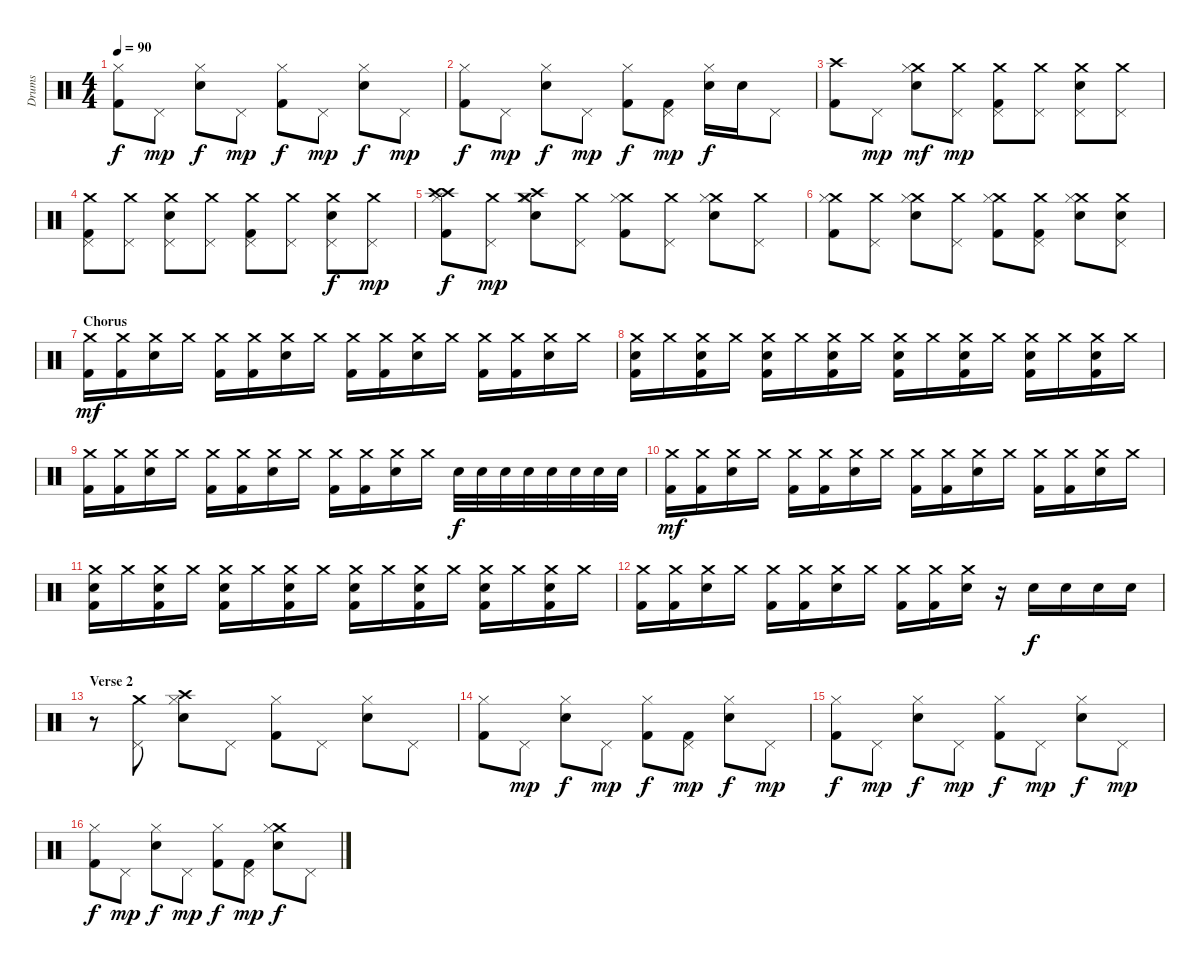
\track ("Drums" "Drums") {instrument percussion}
\staff {score}
\articulation defaults
\ts (4 4)
\tempo 90
\clef neutral
\ks c
("Hi-Hat (closed)" "Kick (hit) 2").8{dy f} "Pedal Hi-Hat (hit)".8{dy mp} ("Hi-Hat (closed)" "Snare (hit) 2").8{dy f} "Pedal Hi-Hat (hit)".8{dy mp} ("Hi-Hat (closed)" "Kick (hit) 2").8{dy f} "Pedal Hi-Hat (hit)".8{dy mp} ("Hi-Hat (closed)" "Snare (hit) 2").8{dy f} "Pedal Hi-Hat (hit)".8{dy mp} |
("Hi-Hat (closed)" "Kick (hit) 2").8{dy f} "Pedal Hi-Hat (hit)".8{dy mp} ("Hi-Hat (closed)" "Snare (hit) 2").8{dy f} "Pedal Hi-Hat (hit)".8{dy mp} ("Hi-Hat (closed)" "Kick (hit) 2").8{dy f} ("Pedal Hi-Hat (hit)" "Kick (hit) 2").8{dy mp} ("Hi-Hat (closed)" "Snare (hit) 2").16{dy f} "Snare (hit) 2".16 "Pedal Hi-Hat (hit)".8 |
("Crash high (hit)" "Kick (hit) 2").8 "Pedal Hi-Hat (hit)".8{dy mp} ("Crash medium (hit)" "Hi-Hat (closed)" "Snare (hit) 2").8{dy mf} ("Crash medium (hit)" "Pedal Hi-Hat (hit)").8{dy mp} ("Crash medium (hit)" "Pedal Hi-Hat (hit)" "Kick (hit) 2").8 ("Crash medium (hit)" "Pedal Hi-Hat (hit)").8 ("Crash medium (hit)" "Pedal Hi-Hat (hit)" "Snare (hit) 2").8 ("Crash medium (hit)" "Pedal Hi-Hat (hit)").8 |
("Crash medium (hit)" "Pedal Hi-Hat (hit)" "Kick (hit) 2").8 ("Crash medium (hit)" "Pedal Hi-Hat (hit)").8 ("Crash medium (hit)" "Pedal Hi-Hat (hit)" "Snare (hit) 2").8 ("Crash medium (hit)" "Pedal Hi-Hat (hit)").8 ("Crash medium (hit)" "Pedal Hi-Hat (hit)" "Kick (hit) 2").8 ("Crash medium (hit)" "Pedal Hi-Hat (hit)").8 ("Crash medium (hit)" "Pedal Hi-Hat (hit)" "Snare (hit) 2").8{dy f} ("Crash medium (hit)" "Pedal Hi-Hat (hit)").8{dy mp} |
("Crash high (hit)" "Crash high (hit)" "Hi-Hat (closed)" "Kick (hit) 2").8{dy f} ("Crash medium (hit)" "Pedal Hi-Hat (hit)").8{dy mp} ("Crash high (hit)" "Crash medium (hit)" "Hi-Hat (closed)" "Snare (hit) 2").8 ("Crash medium (hit)" "Pedal Hi-Hat (hit)").8 ("Crash medium (hit)" "Hi-Hat (closed)" "Kick (hit) 2").8 ("Crash medium (hit)" "Pedal Hi-Hat (hit)").8 ("Crash medium (hit)" "Hi-Hat (closed)" "Snare (hit) 2").8 ("Crash medium (hit)" "Pedal Hi-Hat (hit)").8 |
("Crash medium (hit)" "Hi-Hat (closed)" "Kick (hit) 2").8 ("Crash medium (hit)" "Pedal Hi-Hat (hit)").8 ("Crash medium (hit)" "Hi-Hat (closed)" "Snare (hit) 2").8 ("Crash medium (hit)" "Pedal Hi-Hat (hit)").8 ("Crash medium (hit)" "Hi-Hat (closed)" "Kick (hit) 2").8 ("Crash medium (hit)" "Pedal Hi-Hat (hit)" "Kick (hit) 2").8 ("Crash medium (hit)" "Hi-Hat (closed)" "Snare (hit) 2").8 ("Crash medium (hit)" "Pedal Hi-Hat (hit)" "Snare (hit) 2").8 |
\section ("" "Chorus")
("Crash medium (hit)" "Kick (hit) 2").16{dy mf} ("Crash medium (hit)" "Kick (hit) 2").16 ("Crash medium (hit)" "Snare (hit) 2").16 "Crash medium (hit)".16 ("Crash medium (hit)" "Kick (hit) 2").16 ("Crash medium (hit)" "Kick (hit) 2").16 ("Crash medium (hit)" "Snare (hit) 2").16 "Crash medium (hit)".16 ("Crash medium (hit)" "Kick (hit) 2").16 ("Crash medium (hit)" "Kick (hit) 2").16 ("Crash medium (hit)" "Snare (hit) 2").16 "Crash medium (hit)".16 ("Crash medium (hit)" "Kick (hit) 2").16 ("Crash medium (hit)" "Kick (hit) 2").16 ("Crash medium (hit)" "Snare (hit) 2").16 "Crash medium (hit)".16 |
("Crash medium (hit)" "Snare (hit) 2" "Kick (hit) 2").16 "Crash medium (hit)".16 ("Crash medium (hit)" "Snare (hit) 2" "Kick (hit) 2").16 "Crash medium (hit)".16 ("Crash medium (hit)" "Snare (hit) 2" "Kick (hit) 2").16 "Crash medium (hit)".16 ("Crash medium (hit)" "Snare (hit) 2" "Kick (hit) 2").16 "Crash medium (hit)".16 ("Crash medium (hit)" "Snare (hit) 2" "Kick (hit) 2").16 "Crash medium (hit)".16 ("Crash medium (hit)" "Snare (hit) 2" "Kick (hit) 2").16 "Crash medium (hit)".16 ("Crash medium (hit)" "Snare (hit) 2" "Kick (hit) 2").16 "Crash medium (hit)".16 ("Crash medium (hit)" "Snare (hit) 2" "Kick (hit) 2").16 "Crash medium (hit)".16 |
("Crash medium (hit)" "Kick (hit) 2").16 ("Crash medium (hit)" "Kick (hit) 2").16 ("Crash medium (hit)" "Snare (hit) 2").16 "Crash medium (hit)".16 ("Crash medium (hit)" "Kick (hit) 2").16 ("Crash medium (hit)" "Kick (hit) 2").16 ("Crash medium (hit)" "Snare (hit) 2").16 "Crash medium (hit)".16 ("Crash medium (hit)" "Kick (hit) 2").16 ("Crash medium (hit)" "Kick (hit) 2").16 ("Crash medium (hit)" "Snare (hit) 2").16 "Crash medium (hit)".16 "Snare (hit) 2".32{dy f} "Snare (hit) 2".32 "Snare (hit) 2".32 "Snare (hit) 2".32 "Snare (hit) 2".32 "Snare (hit) 2".32 "Snare (hit) 2".32 "Snare (hit) 2".32 |
("Crash medium (hit)" "Kick (hit) 2").16{dy mf} ("Crash medium (hit)" "Kick (hit) 2").16 ("Crash medium (hit)" "Snare (hit) 2").16 "Crash medium (hit)".16 ("Crash medium (hit)" "Kick (hit) 2").16 ("Crash medium (hit)" "Kick (hit) 2").16 ("Crash medium (hit)" "Snare (hit) 2").16 "Crash medium (hit)".16 ("Crash medium (hit)" "Kick (hit) 2").16 ("Crash medium (hit)" "Kick (hit) 2").16 ("Crash medium (hit)" "Snare (hit) 2").16 "Crash medium (hit)".16 ("Crash medium (hit)" "Kick (hit) 2").16 ("Crash medium (hit)" "Kick (hit) 2").16 ("Crash medium (hit)" "Snare (hit) 2").16 "Crash medium (hit)".16 |
("Crash medium (hit)" "Snare (hit) 2" "Kick (hit) 2").16 "Crash medium (hit)".16 ("Crash medium (hit)" "Snare (hit) 2" "Kick (hit) 2").16 "Crash medium (hit)".16 ("Crash medium (hit)" "Snare (hit) 2" "Kick (hit) 2").16 "Crash medium (hit)".16 ("Crash medium (hit)" "Snare (hit) 2" "Kick (hit) 2").16 "Crash medium (hit)".16 ("Crash medium (hit)" "Snare (hit) 2" "Kick (hit) 2").16 "Crash medium (hit)".16 ("Crash medium (hit)" "Snare (hit) 2" "Kick (hit) 2").16 "Crash medium (hit)".16 ("Crash medium (hit)" "Snare (hit) 2" "Kick (hit) 2").16 "Crash medium (hit)".16 ("Crash medium (hit)" "Snare (hit) 2" "Kick (hit) 2").16 "Crash medium (hit)".16 |
("Crash medium (hit)" "Kick (hit) 2").16 ("Crash medium (hit)" "Kick (hit) 2").16 ("Crash medium (hit)" "Snare (hit) 2").16 "Crash medium (hit)".16 ("Crash medium (hit)" "Kick (hit) 2").16 ("Crash medium (hit)" "Kick (hit) 2").16 ("Crash medium (hit)" "Snare (hit) 2").16 "Crash medium (hit)".16 ("Crash medium (hit)" "Kick (hit) 2").16 ("Crash medium (hit)" "Kick (hit) 2").16 ("Crash medium (hit)" "Snare (hit) 2").16 r.16 "Snare (hit) 2".16{dy f} "Snare (hit) 2".16 "Snare (hit) 2".16 "Snare (hit) 2".16 |
\section ("" "Verse 2")
r.8 ("Crash medium (hit)" "Pedal Hi-Hat (hit)").8 ("Crash high (hit)" "Hi-Hat (closed)" "Snare (hit) 2").8 "Pedal Hi-Hat (hit)".8 ("Hi-Hat (closed)" "Kick (hit) 2").8 "Pedal Hi-Hat (hit)".8 ("Hi-Hat (closed)" "Snare (hit) 2").8 "Pedal Hi-Hat (hit)".8 |
("Hi-Hat (closed)" "Kick (hit) 2").8 "Pedal Hi-Hat (hit)".8{dy mp} ("Hi-Hat (closed)" "Snare (hit) 2").8{dy f} "Pedal Hi-Hat (hit)".8{dy mp} ("Hi-Hat (closed)" "Kick (hit) 2").8{dy f} ("Pedal Hi-Hat (hit)" "Kick (hit) 2").8{dy mp} ("Hi-Hat (closed)" "Snare (hit) 2").8{dy f} "Pedal Hi-Hat (hit)".8{dy mp} |
("Hi-Hat (closed)" "Kick (hit) 2").8{dy f} "Pedal Hi-Hat (hit)".8{dy mp} ("Hi-Hat (closed)" "Snare (hit) 2").8{dy f} "Pedal Hi-Hat (hit)".8{dy mp} ("Hi-Hat (closed)" "Kick (hit) 2").8{dy f} "Pedal Hi-Hat (hit)".8{dy mp} ("Hi-Hat (closed)" "Snare (hit) 2").8{dy f} "Pedal Hi-Hat (hit)".8{dy mp} |
("Hi-Hat (closed)" "Kick (hit) 2").8{dy f} "Pedal Hi-Hat (hit)".8{dy mp} ("Hi-Hat (closed)" "Snare (hit) 2").8{dy f} "Pedal Hi-Hat (hit)".8{dy mp} ("Hi-Hat (closed)" "Kick (hit) 2").8{dy f} ("Pedal Hi-Hat (hit)" "Kick (hit) 2").8{dy mp} ("Crash medium (hit)" "Hi-Hat (closed)" "Snare (hit) 2").8{dy f} "Pedal Hi-Hat (hit)".8
